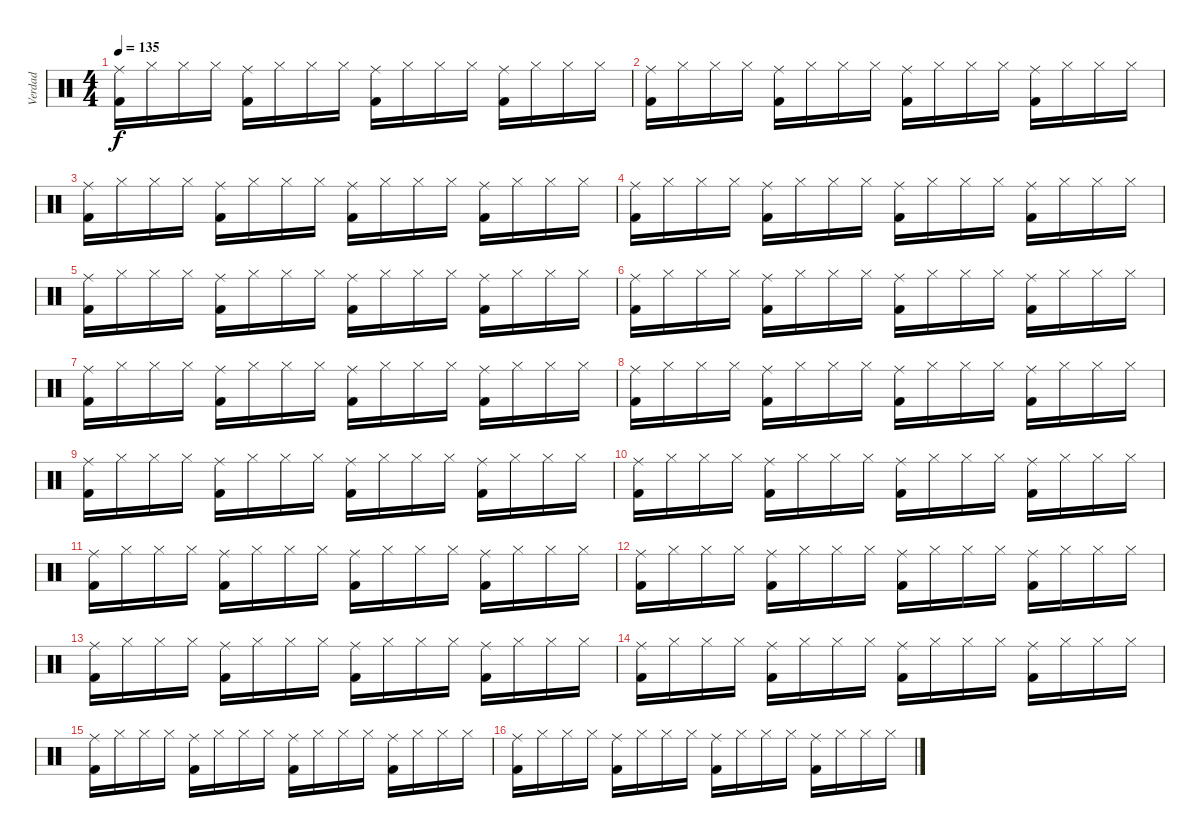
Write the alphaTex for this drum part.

\track ("Verdad" "Verdad") {instrument percussion}
\staff {score}
\articulation defaults
\ts (4 4)
\tempo 135
\clef neutral
\ks c
("Kick (hit) 2" "Ride (middle)").16{dy f} "Hi-Hat (closed)".16 "Hi-Hat (closed)".16 "Hi-Hat (closed)".16 ("Kick (hit) 2" "Ride (middle)").16 "Hi-Hat (closed)".16 "Hi-Hat (closed)".16 "Hi-Hat (closed)".16 ("Kick (hit) 2" "Ride (middle)").16 "Hi-Hat (closed)".16 "Hi-Hat (closed)".16 "Hi-Hat (closed)".16 ("Kick (hit) 2" "Ride (middle)").16 "Hi-Hat (closed)".16 "Hi-Hat (closed)".16 "Hi-Hat (closed)".16 |
("Kick (hit) 2" "Ride (middle)").16 "Hi-Hat (closed)".16 "Hi-Hat (closed)".16 "Hi-Hat (closed)".16 ("Kick (hit) 2" "Ride (middle)").16 "Hi-Hat (closed)".16 "Hi-Hat (closed)".16 "Hi-Hat (closed)".16 ("Kick (hit) 2" "Ride (middle)").16 "Hi-Hat (closed)".16 "Hi-Hat (closed)".16 "Hi-Hat (closed)".16 ("Kick (hit) 2" "Ride (middle)").16 "Hi-Hat (closed)".16 "Hi-Hat (closed)".16 "Hi-Hat (closed)".16 |
("Kick (hit) 2" "Ride (middle)").16 "Hi-Hat (closed)".16 "Hi-Hat (closed)".16 "Hi-Hat (closed)".16 ("Kick (hit) 2" "Ride (middle)").16 "Hi-Hat (closed)".16 "Hi-Hat (closed)".16 "Hi-Hat (closed)".16 ("Kick (hit) 2" "Ride (middle)").16 "Hi-Hat (closed)".16 "Hi-Hat (closed)".16 "Hi-Hat (closed)".16 ("Kick (hit) 2" "Ride (middle)").16 "Hi-Hat (closed)".16 "Hi-Hat (closed)".16 "Hi-Hat (closed)".16 |
("Kick (hit) 2" "Ride (middle)").16 "Hi-Hat (closed)".16 "Hi-Hat (closed)".16 "Hi-Hat (closed)".16 ("Kick (hit) 2" "Ride (middle)").16 "Hi-Hat (closed)".16 "Hi-Hat (closed)".16 "Hi-Hat (closed)".16 ("Kick (hit) 2" "Ride (middle)").16 "Hi-Hat (closed)".16 "Hi-Hat (closed)".16 "Hi-Hat (closed)".16 ("Kick (hit) 2" "Ride (middle)").16 "Hi-Hat (closed)".16 "Hi-Hat (closed)".16 "Hi-Hat (closed)".16 |
("Kick (hit) 2" "Ride (middle)").16 "Hi-Hat (closed)".16 "Hi-Hat (closed)".16 "Hi-Hat (closed)".16 ("Kick (hit) 2" "Ride (middle)").16 "Hi-Hat (closed)".16 "Hi-Hat (closed)".16 "Hi-Hat (closed)".16 ("Kick (hit) 2" "Ride (middle)").16 "Hi-Hat (closed)".16 "Hi-Hat (closed)".16 "Hi-Hat (closed)".16 ("Kick (hit) 2" "Ride (middle)").16 "Hi-Hat (closed)".16 "Hi-Hat (closed)".16 "Hi-Hat (closed)".16 |
("Kick (hit) 2" "Ride (middle)").16 "Hi-Hat (closed)".16 "Hi-Hat (closed)".16 "Hi-Hat (closed)".16 ("Kick (hit) 2" "Ride (middle)").16 "Hi-Hat (closed)".16 "Hi-Hat (closed)".16 "Hi-Hat (closed)".16 ("Kick (hit) 2" "Ride (middle)").16 "Hi-Hat (closed)".16 "Hi-Hat (closed)".16 "Hi-Hat (closed)".16 ("Kick (hit) 2" "Ride (middle)").16 "Hi-Hat (closed)".16 "Hi-Hat (closed)".16 "Hi-Hat (closed)".16 |
("Kick (hit) 2" "Ride (middle)").16 "Hi-Hat (closed)".16 "Hi-Hat (closed)".16 "Hi-Hat (closed)".16 ("Kick (hit) 2" "Ride (middle)").16 "Hi-Hat (closed)".16 "Hi-Hat (closed)".16 "Hi-Hat (closed)".16 ("Kick (hit) 2" "Ride (middle)").16 "Hi-Hat (closed)".16 "Hi-Hat (closed)".16 "Hi-Hat (closed)".16 ("Kick (hit) 2" "Ride (middle)").16 "Hi-Hat (closed)".16 "Hi-Hat (closed)".16 "Hi-Hat (closed)".16 |
("Kick (hit) 2" "Ride (middle)").16 "Hi-Hat (closed)".16 "Hi-Hat (closed)".16 "Hi-Hat (closed)".16 ("Kick (hit) 2" "Ride (middle)").16 "Hi-Hat (closed)".16 "Hi-Hat (closed)".16 "Hi-Hat (closed)".16 ("Kick (hit) 2" "Ride (middle)").16 "Hi-Hat (closed)".16 "Hi-Hat (closed)".16 "Hi-Hat (closed)".16 ("Kick (hit) 2" "Ride (middle)").16 "Hi-Hat (closed)".16 "Hi-Hat (closed)".16 "Hi-Hat (closed)".16 |
("Kick (hit) 2" "Ride (middle)").16 "Hi-Hat (closed)".16 "Hi-Hat (closed)".16 "Hi-Hat (closed)".16 ("Kick (hit) 2" "Ride (middle)").16 "Hi-Hat (closed)".16 "Hi-Hat (closed)".16 "Hi-Hat (closed)".16 ("Kick (hit) 2" "Ride (middle)").16 "Hi-Hat (closed)".16 "Hi-Hat (closed)".16 "Hi-Hat (closed)".16 ("Kick (hit) 2" "Ride (middle)").16 "Hi-Hat (closed)".16 "Hi-Hat (closed)".16 "Hi-Hat (closed)".16 |
("Kick (hit) 2" "Ride (middle)").16 "Hi-Hat (closed)".16 "Hi-Hat (closed)".16 "Hi-Hat (closed)".16 ("Kick (hit) 2" "Ride (middle)").16 "Hi-Hat (closed)".16 "Hi-Hat (closed)".16 "Hi-Hat (closed)".16 ("Kick (hit) 2" "Ride (middle)").16 "Hi-Hat (closed)".16 "Hi-Hat (closed)".16 "Hi-Hat (closed)".16 ("Kick (hit) 2" "Ride (middle)").16 "Hi-Hat (closed)".16 "Hi-Hat (closed)".16 "Hi-Hat (closed)".16 |
("Kick (hit) 2" "Ride (middle)").16 "Hi-Hat (closed)".16 "Hi-Hat (closed)".16 "Hi-Hat (closed)".16 ("Kick (hit) 2" "Ride (middle)").16 "Hi-Hat (closed)".16 "Hi-Hat (closed)".16 "Hi-Hat (closed)".16 ("Kick (hit) 2" "Ride (middle)").16 "Hi-Hat (closed)".16 "Hi-Hat (closed)".16 "Hi-Hat (closed)".16 ("Kick (hit) 2" "Ride (middle)").16 "Hi-Hat (closed)".16 "Hi-Hat (closed)".16 "Hi-Hat (closed)".16 |
("Kick (hit) 2" "Ride (middle)").16 "Hi-Hat (closed)".16 "Hi-Hat (closed)".16 "Hi-Hat (closed)".16 ("Kick (hit) 2" "Ride (middle)").16 "Hi-Hat (closed)".16 "Hi-Hat (closed)".16 "Hi-Hat (closed)".16 ("Kick (hit) 2" "Ride (middle)").16 "Hi-Hat (closed)".16 "Hi-Hat (closed)".16 "Hi-Hat (closed)".16 ("Kick (hit) 2" "Ride (middle)").16 "Hi-Hat (closed)".16 "Hi-Hat (closed)".16 "Hi-Hat (closed)".16 |
("Kick (hit) 2" "Ride (middle)").16 "Hi-Hat (closed)".16 "Hi-Hat (closed)".16 "Hi-Hat (closed)".16 ("Kick (hit) 2" "Ride (middle)").16 "Hi-Hat (closed)".16 "Hi-Hat (closed)".16 "Hi-Hat (closed)".16 ("Kick (hit) 2" "Ride (middle)").16 "Hi-Hat (closed)".16 "Hi-Hat (closed)".16 "Hi-Hat (closed)".16 ("Kick (hit) 2" "Ride (middle)").16 "Hi-Hat (closed)".16 "Hi-Hat (closed)".16 "Hi-Hat (closed)".16 |
("Kick (hit) 2" "Ride (middle)").16 "Hi-Hat (closed)".16 "Hi-Hat (closed)".16 "Hi-Hat (closed)".16 ("Kick (hit) 2" "Ride (middle)").16 "Hi-Hat (closed)".16 "Hi-Hat (closed)".16 "Hi-Hat (closed)".16 ("Kick (hit) 2" "Ride (middle)").16 "Hi-Hat (closed)".16 "Hi-Hat (closed)".16 "Hi-Hat (closed)".16 ("Kick (hit) 2" "Ride (middle)").16 "Hi-Hat (closed)".16 "Hi-Hat (closed)".16 "Hi-Hat (closed)".16 |
("Kick (hit) 2" "Ride (middle)").16 "Hi-Hat (closed)".16 "Hi-Hat (closed)".16 "Hi-Hat (closed)".16 ("Kick (hit) 2" "Ride (middle)").16 "Hi-Hat (closed)".16 "Hi-Hat (closed)".16 "Hi-Hat (closed)".16 ("Kick (hit) 2" "Ride (middle)").16 "Hi-Hat (closed)".16 "Hi-Hat (closed)".16 "Hi-Hat (closed)".16 ("Kick (hit) 2" "Ride (middle)").16 "Hi-Hat (closed)".16 "Hi-Hat (closed)".16 "Hi-Hat (closed)".16 |
("Kick (hit) 2" "Ride (middle)").16 "Hi-Hat (closed)".16 "Hi-Hat (closed)".16 "Hi-Hat (closed)".16 ("Kick (hit) 2" "Ride (middle)").16 "Hi-Hat (closed)".16 "Hi-Hat (closed)".16 "Hi-Hat (closed)".16 ("Kick (hit) 2" "Ride (middle)").16 "Hi-Hat (closed)".16 "Hi-Hat (closed)".16 "Hi-Hat (closed)".16 ("Kick (hit) 2" "Ride (middle)").16 "Hi-Hat (closed)".16 "Hi-Hat (closed)".16 "Hi-Hat (closed)".16
